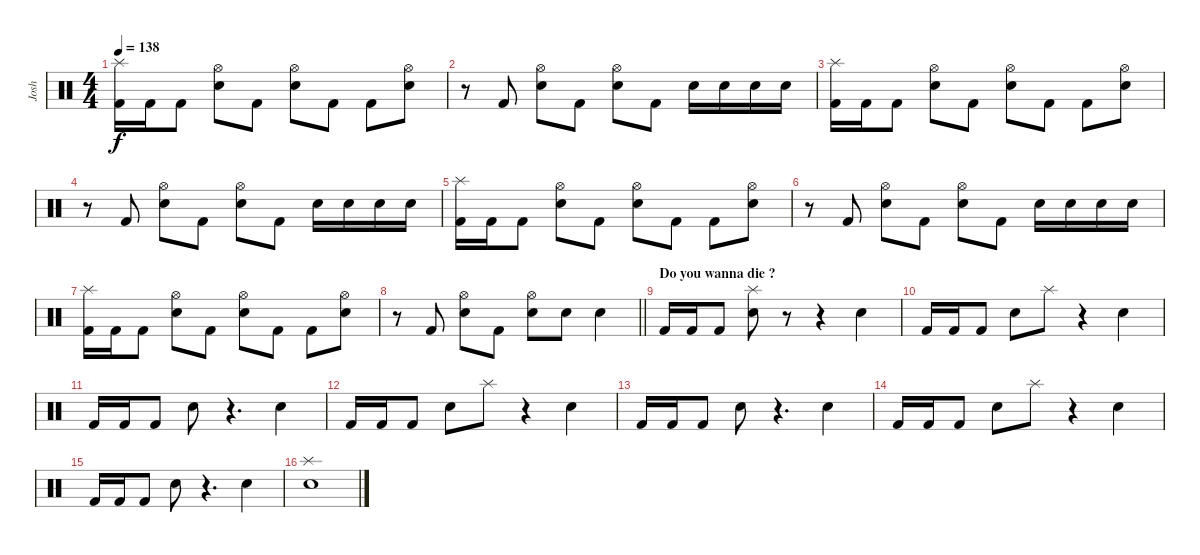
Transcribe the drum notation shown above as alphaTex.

\track ("Josh" "Josh") {instrument percussion}
\staff {score}
\articulation defaults
\ts (4 4)
\tempo 138
\clef neutral
\ks c
("Splash (hit)" "Kick (hit) 2").16{dy f} "Kick (hit) 2".16 "Kick (hit) 2".8 ("Hi-Hat (open)" "Electric Snare (hit)").8 "Kick (hit) 2".8 ("Hi-Hat (open)" "Electric Snare (hit)").8 "Kick (hit) 2".8 "Kick (hit) 2".8 ("Hi-Hat (open)" "Electric Snare (hit)").8 |
r.8 "Kick (hit) 2".8 ("Hi-Hat (open)" "Electric Snare (hit)").8 "Kick (hit) 2".8 ("Hi-Hat (open)" "Electric Snare (hit)").8 "Kick (hit) 2".8 "Electric Snare (hit)".16 "Electric Snare (hit)".16 "Electric Snare (hit)".16 "Electric Snare (hit)".16 |
("Splash (hit)" "Kick (hit) 2").16 "Kick (hit) 2".16 "Kick (hit) 2".8 ("Hi-Hat (open)" "Electric Snare (hit)").8 "Kick (hit) 2".8 ("Hi-Hat (open)" "Electric Snare (hit)").8 "Kick (hit) 2".8 "Kick (hit) 2".8 ("Hi-Hat (open)" "Electric Snare (hit)").8 |
r.8 "Kick (hit) 2".8 ("Hi-Hat (open)" "Electric Snare (hit)").8 "Kick (hit) 2".8 ("Hi-Hat (open)" "Electric Snare (hit)").8 "Kick (hit) 2".8 "Electric Snare (hit)".16 "Electric Snare (hit)".16 "Electric Snare (hit)".16 "Electric Snare (hit)".16 |
("Splash (hit)" "Kick (hit) 2").16 "Kick (hit) 2".16 "Kick (hit) 2".8 ("Hi-Hat (open)" "Electric Snare (hit)").8 "Kick (hit) 2".8 ("Hi-Hat (open)" "Electric Snare (hit)").8 "Kick (hit) 2".8 "Kick (hit) 2".8 ("Hi-Hat (open)" "Electric Snare (hit)").8 |
r.8 "Kick (hit) 2".8 ("Hi-Hat (open)" "Electric Snare (hit)").8 "Kick (hit) 2".8 ("Hi-Hat (open)" "Electric Snare (hit)").8 "Kick (hit) 2".8 "Electric Snare (hit)".16 "Electric Snare (hit)".16 "Electric Snare (hit)".16 "Electric Snare (hit)".16 |
("Splash (hit)" "Kick (hit) 2").16 "Kick (hit) 2".16 "Kick (hit) 2".8 ("Hi-Hat (open)" "Electric Snare (hit)").8 "Kick (hit) 2".8 ("Hi-Hat (open)" "Electric Snare (hit)").8 "Kick (hit) 2".8 "Kick (hit) 2".8 ("Hi-Hat (open)" "Electric Snare (hit)").8 |
\barLineRight lightlight
r.8 "Kick (hit) 2".8 ("Hi-Hat (open)" "Electric Snare (hit)").8 "Kick (hit) 2".8 ("Hi-Hat (open)" "Electric Snare (hit)").8 "Electric Snare (hit)".8 "Electric Snare (hit)".4 |
\section ("" "Do you wanna die ?")
"Kick (hit) 2".16 "Kick (hit) 2".16 "Kick (hit) 2".8 ("Splash (hit)" "Electric Snare (hit)").8 r.8 r.4 "Electric Snare (hit)".4 |
"Kick (hit) 2".16 "Kick (hit) 2".16 "Kick (hit) 2".8 "Electric Snare (hit)".8 "Splash (hit)".8 r.4 "Electric Snare (hit)".4 |
"Kick (hit) 2".16 "Kick (hit) 2".16 "Kick (hit) 2".8 "Electric Snare (hit)".8 r.4{d} "Electric Snare (hit)".4 |
"Kick (hit) 2".16 "Kick (hit) 2".16 "Kick (hit) 2".8 "Electric Snare (hit)".8 "Splash (hit)".8 r.4 "Electric Snare (hit)".4 |
"Kick (hit) 2".16 "Kick (hit) 2".16 "Kick (hit) 2".8 "Electric Snare (hit)".8 r.4{d} "Electric Snare (hit)".4 |
"Kick (hit) 2".16 "Kick (hit) 2".16 "Kick (hit) 2".8 "Electric Snare (hit)".8 "Splash (hit)".8 r.4 "Electric Snare (hit)".4 |
"Kick (hit) 2".16 "Kick (hit) 2".16 "Kick (hit) 2".8 "Electric Snare (hit)".8 r.4{d} "Electric Snare (hit)".4 |
("Splash (hit)" "Electric Snare (hit)").1
